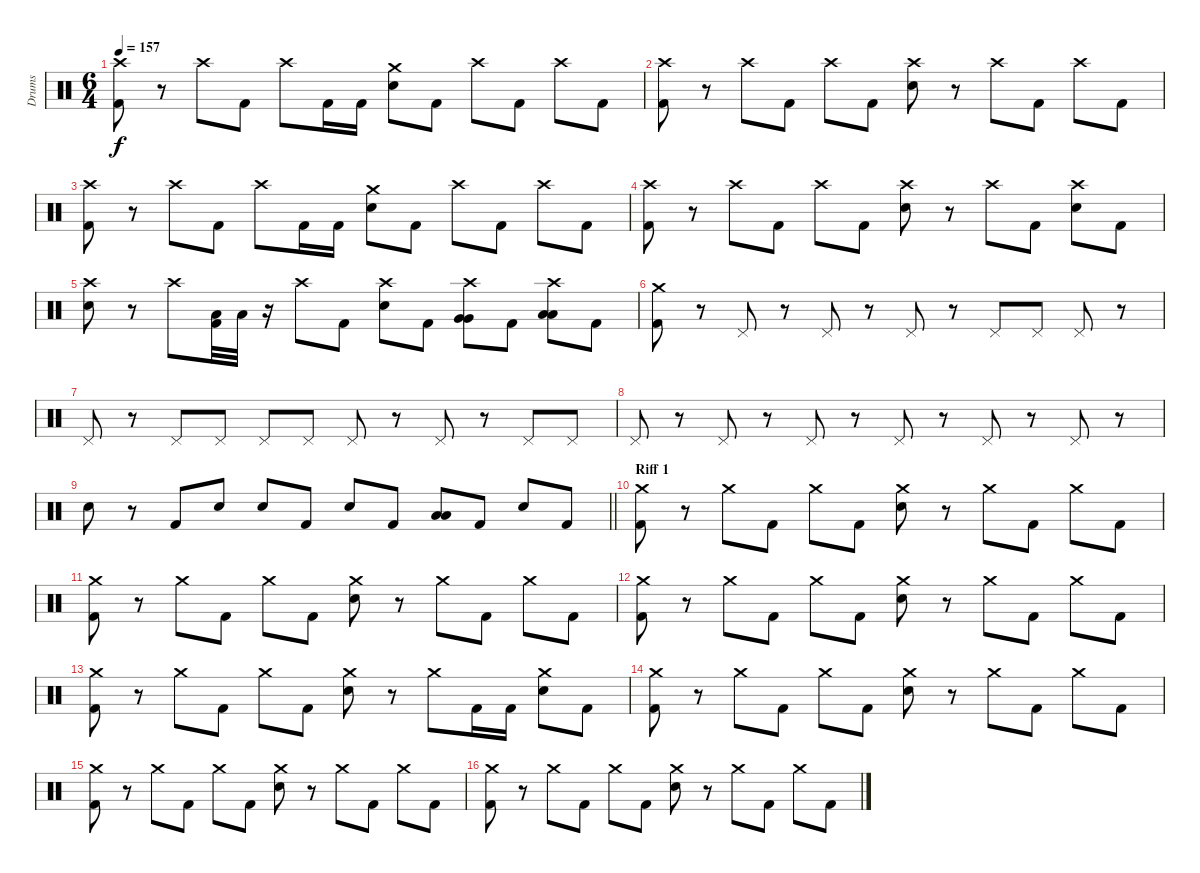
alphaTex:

\track ("Drums" "Drums") {instrument percussion}
\staff {score}
\articulation defaults
\ts (6 4)
\tempo 157
\clef neutral
\ks c
("Crash high (hit)" "Kick (hit) 2").8{dy f} r.8 "Crash high (hit)".8 "Kick (hit) 2".8 "Crash high (hit)".8 "Kick (hit) 2".16 "Kick (hit) 2".16 ("Crash medium (hit)" "Electric Snare (hit)").8 "Kick (hit) 2".8 "Crash high (hit)".8 "Kick (hit) 2".8 "Crash high (hit)".8 "Kick (hit) 2".8 |
("Crash high (hit)" "Kick (hit) 2").8 r.8 "Crash high (hit)".8 "Kick (hit) 2".8 "Crash high (hit)".8 "Kick (hit) 2".8 ("Crash high (hit)" "Electric Snare (hit)").8 r.8 "Crash high (hit)".8 "Kick (hit) 2".8 "Crash high (hit)".8 "Kick (hit) 2".8 |
("Crash high (hit)" "Kick (hit) 2").8 r.8 "Crash high (hit)".8 "Kick (hit) 2".8 "Crash high (hit)".8 "Kick (hit) 2".16 "Kick (hit) 2".16 ("Crash medium (hit)" "Electric Snare (hit)").8 "Kick (hit) 2".8 "Crash high (hit)".8 "Kick (hit) 2".8 "Crash high (hit)".8 "Kick (hit) 2".8 |
("Crash high (hit)" "Kick (hit) 2").8 r.8 "Crash high (hit)".8 "Kick (hit) 2".8 "Crash high (hit)".8 "Kick (hit) 2".8 ("Crash high (hit)" "Electric Snare (hit)").8 r.8 "Crash high (hit)".8 "Kick (hit) 2".8 ("Crash high (hit)" "Electric Snare (hit)").8 "Kick (hit) 2".8 |
("Crash high (hit)" "Electric Snare (hit)").8 r.8 "Crash high (hit)".8 ("Low Tom (hit)" "Kick (hit) 2").32 "Low Tom (hit)".32 r.16 "Crash high (hit)".8 "Kick (hit) 2".8 ("Crash high (hit)" "Electric Snare (hit)").8 "Kick (hit) 2".8 ("Crash high (hit)" "Very Low Tom (hit)" "Very Low Tom (hit)").8{bu 480} "Kick (hit) 2".8 ("Crash high (hit)" "Low Floor Tom (hit)" "Low Floor Tom (hit)").8{bu 480} "Kick (hit) 2".8 |
("Crash medium (hit)" "Kick (hit) 2").8 r.8 "Pedal Hi-Hat (hit)".8 r.8 "Pedal Hi-Hat (hit)".8 r.8 "Pedal Hi-Hat (hit)".8 r.8 "Pedal Hi-Hat (hit)".8 "Pedal Hi-Hat (hit)".8 "Pedal Hi-Hat (hit)".8 r.8 |
"Pedal Hi-Hat (hit)".8 r.8 "Pedal Hi-Hat (hit)".8 "Pedal Hi-Hat (hit)".8 "Pedal Hi-Hat (hit)".8 "Pedal Hi-Hat (hit)".8 "Pedal Hi-Hat (hit)".8 r.8 "Pedal Hi-Hat (hit)".8 r.8 "Pedal Hi-Hat (hit)".8 "Pedal Hi-Hat (hit)".8 |
"Pedal Hi-Hat (hit)".8 r.8 "Pedal Hi-Hat (hit)".8 r.8 "Pedal Hi-Hat (hit)".8 r.8 "Pedal Hi-Hat (hit)".8 r.8 "Pedal Hi-Hat (hit)".8 r.8 "Pedal Hi-Hat (hit)".8 r.8 |
\barLineRight lightlight "Electric Snare (hit)".8
r.8 "Kick (hit) 2".8 "Electric Snare (hit)".8 "Electric Snare (hit)".8 "Kick (hit) 2".8 "Electric Snare (hit)".8 "Kick (hit) 2".8 ("Low Tom (hit)" "Low Tom (hit)").8{bu 480} "Kick (hit) 2".8 "Electric Snare (hit)".8 "Kick (hit) 2".8 |
\section ("" "Riff 1")
("Crash medium (hit)" "Kick (hit) 2").8 r.8 "Crash medium (hit)".8 "Kick (hit) 2".8 "Crash medium (hit)".8 "Kick (hit) 2".8 ("Crash medium (hit)" "Electric Snare (hit)").8 r.8 "Crash medium (hit)".8 "Kick (hit) 2".8 "Crash medium (hit)".8 "Kick (hit) 2".8 |
("Crash medium (hit)" "Kick (hit) 2").8 r.8 "Crash medium (hit)".8 "Kick (hit) 2".8 "Crash medium (hit)".8 "Kick (hit) 2".8 ("Crash medium (hit)" "Electric Snare (hit)").8 r.8 "Crash medium (hit)".8 "Kick (hit) 2".8 "Crash medium (hit)".8 "Kick (hit) 2".8 |
("Crash medium (hit)" "Kick (hit) 2").8 r.8 "Crash medium (hit)".8 "Kick (hit) 2".8 "Crash medium (hit)".8 "Kick (hit) 2".8 ("Crash medium (hit)" "Electric Snare (hit)").8 r.8 "Crash medium (hit)".8 "Kick (hit) 2".8 "Crash medium (hit)".8 "Kick (hit) 2".8 |
("Crash medium (hit)" "Kick (hit) 2").8 r.8 "Crash medium (hit)".8 "Kick (hit) 2".8 "Crash medium (hit)".8 "Kick (hit) 2".8 ("Crash medium (hit)" "Electric Snare (hit)").8 r.8 "Crash medium (hit)".8 "Kick (hit) 2".16 "Kick (hit) 2".16 ("Crash medium (hit)" "Electric Snare (hit)").8 "Kick (hit) 2".8 |
("Crash medium (hit)" "Kick (hit) 2").8 r.8 "Crash medium (hit)".8 "Kick (hit) 2".8 "Crash medium (hit)".8 "Kick (hit) 2".8 ("Crash medium (hit)" "Electric Snare (hit)").8 r.8 "Crash medium (hit)".8 "Kick (hit) 2".8 "Crash medium (hit)".8 "Kick (hit) 2".8 |
("Crash medium (hit)" "Kick (hit) 2").8 r.8 "Crash medium (hit)".8 "Kick (hit) 2".8 "Crash medium (hit)".8 "Kick (hit) 2".8 ("Crash medium (hit)" "Electric Snare (hit)").8 r.8 "Crash medium (hit)".8 "Kick (hit) 2".8 "Crash medium (hit)".8 "Kick (hit) 2".8 |
("Crash medium (hit)" "Kick (hit) 2").8 r.8 "Crash medium (hit)".8 "Kick (hit) 2".8 "Crash medium (hit)".8 "Kick (hit) 2".8 ("Crash medium (hit)" "Electric Snare (hit)").8 r.8 "Crash medium (hit)".8 "Kick (hit) 2".8 "Crash medium (hit)".8 "Kick (hit) 2".8
